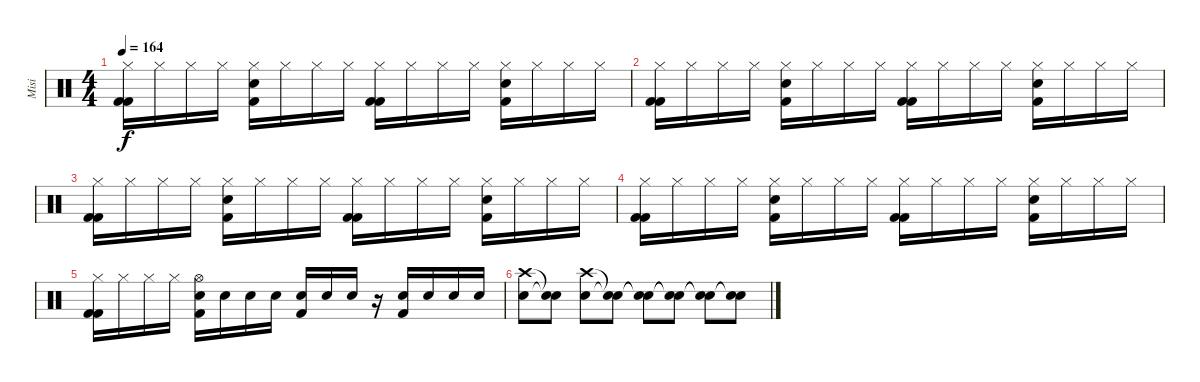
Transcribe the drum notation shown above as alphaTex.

\track ("Misi" "Misi") {instrument percussion}
\staff {score}
\articulation defaults
\ts (4 4)
\tempo 164
\clef neutral
\ks c
("Hi-Hat (closed)" "Kick (hit) 2" "Kick (hit) 2").16{dy f} "Hi-Hat (closed)".16 "Hi-Hat (closed)".16 "Hi-Hat (closed)".16 ("Hi-Hat (closed)" "Electric Snare (hit)" "Kick (hit) 2").16 "Hi-Hat (closed)".16 "Hi-Hat (closed)".16 "Hi-Hat (closed)".16 ("Hi-Hat (closed)" "Kick (hit) 2" "Kick (hit) 2").16 "Hi-Hat (closed)".16 "Hi-Hat (closed)".16 "Hi-Hat (closed)".16 ("Hi-Hat (closed)" "Electric Snare (hit)" "Kick (hit) 2").16 "Hi-Hat (closed)".16 "Hi-Hat (closed)".16 "Hi-Hat (closed)".16 |
("Hi-Hat (closed)" "Kick (hit) 2" "Kick (hit) 2").16 "Hi-Hat (closed)".16 "Hi-Hat (closed)".16 "Hi-Hat (closed)".16 ("Hi-Hat (closed)" "Electric Snare (hit)" "Kick (hit) 2").16 "Hi-Hat (closed)".16 "Hi-Hat (closed)".16 "Hi-Hat (closed)".16 ("Hi-Hat (closed)" "Kick (hit) 2" "Kick (hit) 2").16 "Hi-Hat (closed)".16 "Hi-Hat (closed)".16 "Hi-Hat (closed)".16 ("Hi-Hat (closed)" "Electric Snare (hit)" "Kick (hit) 2").16 "Hi-Hat (closed)".16 "Hi-Hat (closed)".16 "Hi-Hat (closed)".16 |
("Hi-Hat (closed)" "Kick (hit) 2" "Kick (hit) 2").16 "Hi-Hat (closed)".16 "Hi-Hat (closed)".16 "Hi-Hat (closed)".16 ("Hi-Hat (closed)" "Electric Snare (hit)" "Kick (hit) 2").16 "Hi-Hat (closed)".16 "Hi-Hat (closed)".16 "Hi-Hat (closed)".16 ("Hi-Hat (closed)" "Kick (hit) 2" "Kick (hit) 2").16 "Hi-Hat (closed)".16 "Hi-Hat (closed)".16 "Hi-Hat (closed)".16 ("Hi-Hat (closed)" "Electric Snare (hit)" "Kick (hit) 2").16 "Hi-Hat (closed)".16 "Hi-Hat (closed)".16 "Hi-Hat (closed)".16 |
("Hi-Hat (closed)" "Kick (hit) 2" "Kick (hit) 2").16 "Hi-Hat (closed)".16 "Hi-Hat (closed)".16 "Hi-Hat (closed)".16 ("Hi-Hat (closed)" "Electric Snare (hit)" "Kick (hit) 2").16 "Hi-Hat (closed)".16 "Hi-Hat (closed)".16 "Hi-Hat (closed)".16 ("Hi-Hat (closed)" "Kick (hit) 2" "Kick (hit) 2").16 "Hi-Hat (closed)".16 "Hi-Hat (closed)".16 "Hi-Hat (closed)".16 ("Hi-Hat (closed)" "Electric Snare (hit)" "Kick (hit) 2").16 "Hi-Hat (closed)".16 "Hi-Hat (closed)".16 "Hi-Hat (closed)".16 |
("Hi-Hat (closed)" "Kick (hit) 2" "Kick (hit) 2").16 "Hi-Hat (closed)".16 "Hi-Hat (closed)".16 "Hi-Hat (closed)".16 ("Hi-Hat (open)" "Electric Snare (hit)" "Kick (hit) 2").16 "Electric Snare (hit)".16 "Electric Snare (hit)".16 "Electric Snare (hit)".16 ("Electric Snare (hit)" "Kick (hit) 2").16 "Electric Snare (hit)".16 "Electric Snare (hit)".16 r.16 ("Electric Snare (hit)" "Kick (hit) 2").16 "Electric Snare (hit)".16 "Electric Snare (hit)".16 "Electric Snare (hit)".16 |
("Crash high (hit)" "Electric Snare (hit)").8 ("Snare (hit)"{t} "Snare (hit)"{t}).8 ("Crash high (hit)" "Electric Snare (hit)").8 ("Snare (hit)"{t} "Snare (hit)"{t}).8 ("Snare (hit)"{t} "Snare (hit)"{t}).8 ("Snare (hit)"{t} "Snare (hit)"{t}).8 ("Snare (hit)"{t} "Snare (hit)"{t}).8 ("Snare (hit)"{t} "Snare (hit)"{t}).8
